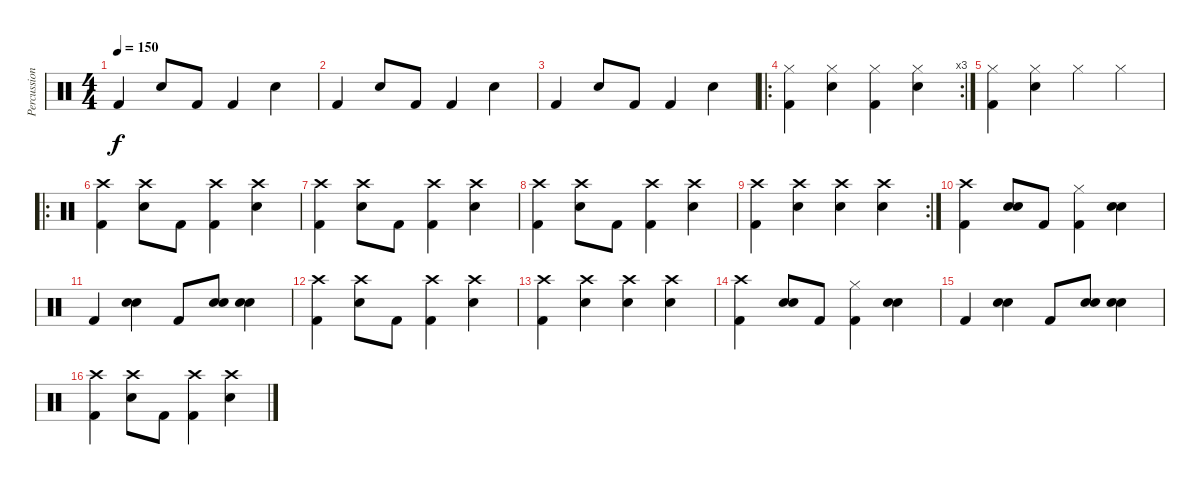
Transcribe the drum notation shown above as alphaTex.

\track ("Percussions" "Percussion") {instrument percussion}
\staff {score}
\articulation defaults
\ts (4 4)
\tempo 150
\clef neutral
\ks c "Kick (hit) 2".4{dy f} "Snare (hit) 2".8 "Kick (hit) 2".8 "Kick (hit) 2".4 "Snare (hit) 2".4
|
"Kick (hit) 2".4 "Snare (hit) 2".8 "Kick (hit) 2".8 "Kick (hit) 2".4 "Snare (hit) 2".4 |
"Kick (hit) 2".4 "Snare (hit) 2".8 "Kick (hit) 2".8 "Kick (hit) 2".4 "Snare (hit) 2".4 |
\ro
\rc 3
("Kick (hit) 2" "Hi-Hat (closed)").4 ("Snare (hit) 2" "Hi-Hat (closed)").4 ("Kick (hit) 2" "Hi-Hat (closed)").4 ("Snare (hit) 2" "Hi-Hat (closed)").4 |
("Kick (hit) 2" "Hi-Hat (closed)").4 ("Snare (hit) 2" "Hi-Hat (closed)").4 "Hi-Hat (closed)".4 "Hi-Hat (closed)".4 |
\ro
("Kick (hit) 2" "Crash high (hit)").4 ("Snare (hit) 2" "Crash high (hit)").8 "Kick (hit) 2".8 ("Kick (hit) 2" "Crash high (hit)").4 ("Snare (hit) 2" "Crash high (hit)").4 |
("Kick (hit) 2" "Crash high (hit)").4 ("Snare (hit) 2" "Crash high (hit)").8 "Kick (hit) 2".8 ("Kick (hit) 2" "Crash high (hit)").4 ("Snare (hit) 2" "Crash high (hit)").4 |
("Kick (hit) 2" "Crash high (hit)").4 ("Snare (hit) 2" "Crash high (hit)").8 "Kick (hit) 2".8 ("Kick (hit) 2" "Crash high (hit)").4 ("Snare (hit) 2" "Crash high (hit)").4 |
\rc 2
("Kick (hit) 2" "Crash high (hit)").4 ("Snare (hit) 2" "Crash high (hit)").4 ("Snare (hit) 2" "Crash high (hit)").4 ("Snare (hit) 2" "Crash high (hit)").4 |
("Kick (hit) 2" "Crash high (hit)").4 ("Snare (hit) 2" "Snare (hit) 2").8 "Kick (hit) 2".8 ("Kick (hit) 2" "Hi-Hat (closed)").4 ("Snare (hit) 2" "Snare (hit) 2").4 |
"Kick (hit) 2".4 ("Snare (hit) 2" "Snare (hit) 2").4 "Kick (hit) 2".8 ("Snare (hit) 2" "Snare (hit) 2").8 ("Snare (hit) 2" "Snare (hit) 2").4 |
("Kick (hit) 2" "Crash high (hit)").4 ("Snare (hit) 2" "Crash high (hit)").8 "Kick (hit) 2".8 ("Kick (hit) 2" "Crash high (hit)").4 ("Snare (hit) 2" "Crash high (hit)").4 |
("Kick (hit) 2" "Crash high (hit)").4 ("Snare (hit) 2" "Crash high (hit)").4 ("Snare (hit) 2" "Crash high (hit)").4 ("Snare (hit) 2" "Crash high (hit)").4 |
("Kick (hit) 2" "Crash high (hit)").4 ("Snare (hit) 2" "Snare (hit) 2").8 "Kick (hit) 2".8 ("Kick (hit) 2" "Hi-Hat (closed)").4 ("Snare (hit) 2" "Snare (hit) 2").4 |
"Kick (hit) 2".4 ("Snare (hit) 2" "Snare (hit) 2").4 "Kick (hit) 2".8 ("Snare (hit) 2" "Snare (hit) 2").8 ("Snare (hit) 2" "Snare (hit) 2").4 |
("Kick (hit) 2" "Crash high (hit)").4 ("Snare (hit) 2" "Crash high (hit)").8 "Kick (hit) 2".8 ("Kick (hit) 2" "Crash high (hit)").4 ("Snare (hit) 2" "Crash high (hit)").4
